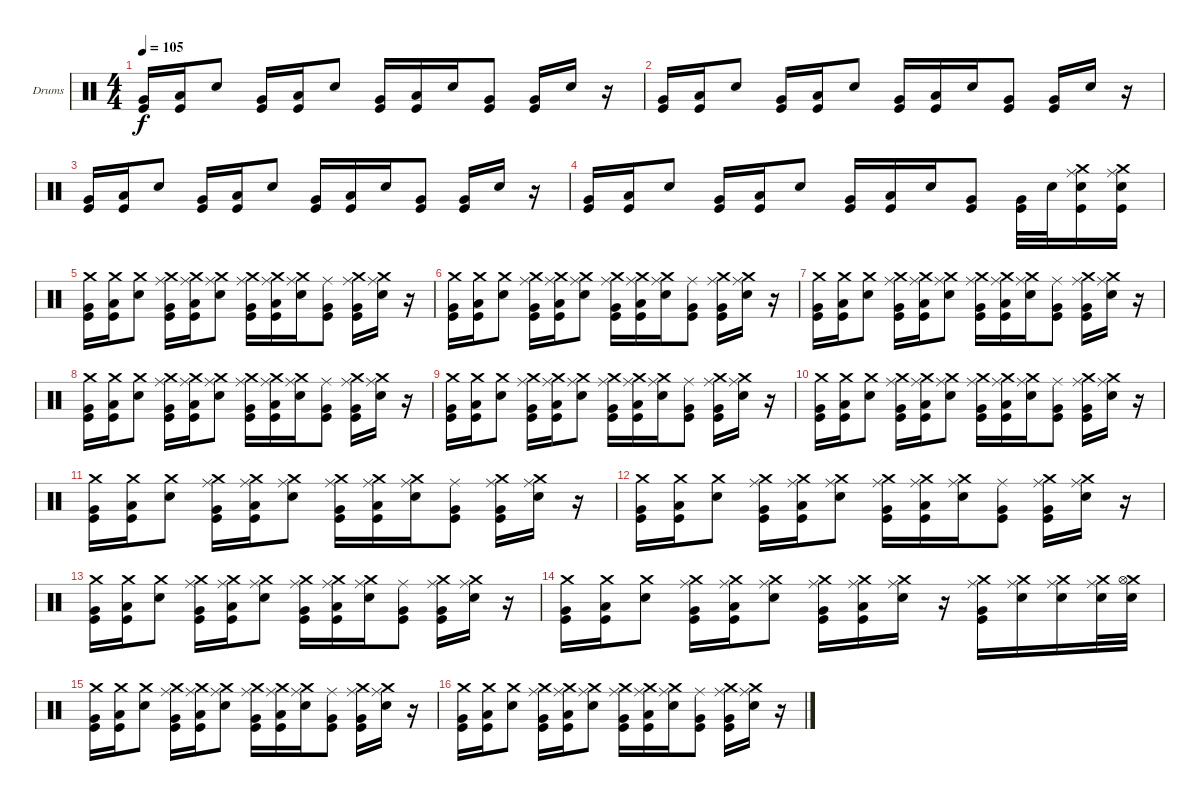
\defaultSystemsLayout 4
\bracketExtendMode groupsimilarinstruments
\firstSystemTrackNameOrientation horizontal
\otherSystemsTrackNameOrientation horizontal
\track ("Steve" "Drums") {instrument percussion}
\staff {score}
\articulation defaults
\ts (4 4)
\tempo 105
\clef neutral
\ks c
("Very Low Tom (hit)" "Kick (hit)").16{dy f} ("Low Tom (hit)" "Kick (hit)").16 "Snare (hit) 2".8 ("Very Low Tom (hit)" "Kick (hit)").16 ("Low Tom (hit)" "Kick (hit)").16 "Snare (hit) 2".8 ("Very Low Tom (hit)" "Kick (hit)").16 ("Low Tom (hit)" "Kick (hit)").16 "Snare (hit) 2".16 ("Very Low Tom (hit)" "Kick (hit)").8 ("Very Low Tom (hit)" "Kick (hit)").16 "Snare (hit) 2".16 r.16 |
("Very Low Tom (hit)" "Kick (hit)").16 ("Low Tom (hit)" "Kick (hit)").16 "Snare (hit) 2".8 ("Very Low Tom (hit)" "Kick (hit)").16 ("Low Tom (hit)" "Kick (hit)").16 "Snare (hit) 2".8 ("Very Low Tom (hit)" "Kick (hit)").16 ("Low Tom (hit)" "Kick (hit)").16 "Snare (hit) 2".16 ("Very Low Tom (hit)" "Kick (hit)").8 ("Very Low Tom (hit)" "Kick (hit)").16 "Snare (hit) 2".16 r.16 |
("Very Low Tom (hit)" "Kick (hit)").16 ("Low Tom (hit)" "Kick (hit)").16 "Snare (hit) 2".8 ("Very Low Tom (hit)" "Kick (hit)").16 ("Low Tom (hit)" "Kick (hit)").16 "Snare (hit) 2".8 ("Very Low Tom (hit)" "Kick (hit)").16 ("Low Tom (hit)" "Kick (hit)").16 "Snare (hit) 2".16 ("Very Low Tom (hit)" "Kick (hit)").8 ("Very Low Tom (hit)" "Kick (hit)").16 "Snare (hit) 2".16 r.16 |
("Very Low Tom (hit)" "Kick (hit)").16 ("Low Tom (hit)" "Kick (hit)").16 "Snare (hit) 2".8 ("Very Low Tom (hit)" "Kick (hit)").16 ("Low Tom (hit)" "Kick (hit)").16 "Snare (hit) 2".8 ("Very Low Tom (hit)" "Kick (hit)").16 ("Low Tom (hit)" "Kick (hit)").16 "Snare (hit) 2".16 ("Very Low Tom (hit)" "Kick (hit)").8 ("Very Low Tom (hit)" "Kick (hit)").32 "Snare (hit) 2".32 ("Snare (hit) 2" "Kick (hit)" "Crash medium (hit)" "Ride (middle)").16 ("Snare (hit) 2" "Kick (hit)" "Crash medium (hit)" "Ride (middle)").16 |
("Very Low Tom (hit)" "Crash medium (hit)" "Kick (hit)").16 ("Low Tom (hit)" "Crash medium (hit)" "Kick (hit)").16 ("Snare (hit) 2" "Crash medium (hit)").8 ("Very Low Tom (hit)" "Ride (middle)" "Kick (hit)" "Crash medium (hit)").16 ("Low Tom (hit)" "Ride (middle)" "Kick (hit)" "Crash medium (hit)").16 ("Snare (hit) 2" "Ride (middle)" "Crash medium (hit)").8 ("Very Low Tom (hit)" "Ride (middle)" "Kick (hit)" "Crash medium (hit)").16 ("Low Tom (hit)" "Ride (middle)" "Kick (hit)" "Crash medium (hit)").16 ("Snare (hit) 2" "Ride (middle)" "Crash medium (hit)").16 ("Very Low Tom (hit)" "Ride (middle)" "Kick (hit)").8 ("Very Low Tom (hit)" "Ride (middle)" "Kick (hit)" "Crash medium (hit)").16 ("Snare (hit) 2" "Ride (middle)" "Crash medium (hit)").16 r.16 |
("Very Low Tom (hit)" "Crash medium (hit)" "Kick (hit)").16 ("Low Tom (hit)" "Crash medium (hit)" "Kick (hit)").16 ("Snare (hit) 2" "Crash medium (hit)").8 ("Very Low Tom (hit)" "Ride (middle)" "Kick (hit)" "Crash medium (hit)").16 ("Low Tom (hit)" "Ride (middle)" "Kick (hit)" "Crash medium (hit)").16 ("Snare (hit) 2" "Ride (middle)" "Crash medium (hit)").8 ("Very Low Tom (hit)" "Ride (middle)" "Kick (hit)" "Crash medium (hit)").16 ("Low Tom (hit)" "Ride (middle)" "Kick (hit)" "Crash medium (hit)").16 ("Snare (hit) 2" "Ride (middle)" "Crash medium (hit)").16 ("Very Low Tom (hit)" "Ride (middle)" "Kick (hit)").8 ("Very Low Tom (hit)" "Ride (middle)" "Kick (hit)" "Crash medium (hit)").16 ("Snare (hit) 2" "Ride (middle)" "Crash medium (hit)").16 r.16 |
("Very Low Tom (hit)" "Crash medium (hit)" "Kick (hit)").16 ("Low Tom (hit)" "Crash medium (hit)" "Kick (hit)").16 ("Snare (hit) 2" "Crash medium (hit)").8 ("Very Low Tom (hit)" "Ride (middle)" "Kick (hit)" "Crash medium (hit)").16 ("Low Tom (hit)" "Ride (middle)" "Kick (hit)" "Crash medium (hit)").16 ("Snare (hit) 2" "Ride (middle)" "Crash medium (hit)").8 ("Very Low Tom (hit)" "Ride (middle)" "Kick (hit)" "Crash medium (hit)").16 ("Low Tom (hit)" "Ride (middle)" "Kick (hit)" "Crash medium (hit)").16 ("Snare (hit) 2" "Ride (middle)" "Crash medium (hit)").16 ("Very Low Tom (hit)" "Ride (middle)" "Kick (hit)").8 ("Very Low Tom (hit)" "Ride (middle)" "Kick (hit)" "Crash medium (hit)").16 ("Snare (hit) 2" "Ride (middle)" "Crash medium (hit)").16 r.16 |
("Very Low Tom (hit)" "Crash medium (hit)" "Kick (hit)").16 ("Low Tom (hit)" "Crash medium (hit)" "Kick (hit)").16 ("Snare (hit) 2" "Crash medium (hit)").8 ("Very Low Tom (hit)" "Ride (middle)" "Kick (hit)" "Crash medium (hit)").16 ("Low Tom (hit)" "Ride (middle)" "Kick (hit)" "Crash medium (hit)").16 ("Snare (hit) 2" "Ride (middle)" "Crash medium (hit)").8 ("Very Low Tom (hit)" "Ride (middle)" "Kick (hit)" "Crash medium (hit)").16 ("Low Tom (hit)" "Ride (middle)" "Kick (hit)" "Crash medium (hit)").16 ("Snare (hit) 2" "Ride (middle)" "Crash medium (hit)").16 ("Very Low Tom (hit)" "Ride (middle)" "Kick (hit)").8 ("Very Low Tom (hit)" "Ride (middle)" "Kick (hit)" "Crash medium (hit)").16 ("Snare (hit) 2" "Ride (middle)" "Crash medium (hit)").16 r.16 |
("Very Low Tom (hit)" "Crash medium (hit)" "Kick (hit)").16 ("Low Tom (hit)" "Crash medium (hit)" "Kick (hit)").16 ("Snare (hit) 2" "Crash medium (hit)").8 ("Very Low Tom (hit)" "Ride (middle)" "Kick (hit)" "Crash medium (hit)").16 ("Low Tom (hit)" "Ride (middle)" "Kick (hit)" "Crash medium (hit)").16 ("Snare (hit) 2" "Ride (middle)" "Crash medium (hit)").8 ("Very Low Tom (hit)" "Ride (middle)" "Kick (hit)" "Crash medium (hit)").16 ("Low Tom (hit)" "Ride (middle)" "Kick (hit)" "Crash medium (hit)").16 ("Snare (hit) 2" "Ride (middle)" "Crash medium (hit)").16 ("Very Low Tom (hit)" "Ride (middle)" "Kick (hit)").8 ("Very Low Tom (hit)" "Ride (middle)" "Kick (hit)" "Crash medium (hit)").16 ("Snare (hit) 2" "Ride (middle)" "Crash medium (hit)").16 r.16 |
("Very Low Tom (hit)" "Crash medium (hit)" "Kick (hit)").16 ("Low Tom (hit)" "Crash medium (hit)" "Kick (hit)").16 ("Snare (hit) 2" "Crash medium (hit)").8 ("Very Low Tom (hit)" "Ride (middle)" "Kick (hit)" "Crash medium (hit)").16 ("Low Tom (hit)" "Ride (middle)" "Kick (hit)" "Crash medium (hit)").16 ("Snare (hit) 2" "Ride (middle)" "Crash medium (hit)").8 ("Very Low Tom (hit)" "Ride (middle)" "Kick (hit)" "Crash medium (hit)").16 ("Low Tom (hit)" "Ride (middle)" "Kick (hit)" "Crash medium (hit)").16 ("Snare (hit) 2" "Ride (middle)" "Crash medium (hit)").16 ("Very Low Tom (hit)" "Ride (middle)" "Kick (hit)").8 ("Very Low Tom (hit)" "Ride (middle)" "Kick (hit)" "Crash medium (hit)").16 ("Snare (hit) 2" "Ride (middle)" "Crash medium (hit)").16 r.16 |
("Very Low Tom (hit)" "Crash medium (hit)" "Kick (hit)").16 ("Low Tom (hit)" "Crash medium (hit)" "Kick (hit)").16 ("Snare (hit) 2" "Crash medium (hit)").8 ("Very Low Tom (hit)" "Ride (middle)" "Kick (hit)" "Crash medium (hit)").16 ("Low Tom (hit)" "Ride (middle)" "Kick (hit)" "Crash medium (hit)").16 ("Snare (hit) 2" "Ride (middle)" "Crash medium (hit)").8 ("Very Low Tom (hit)" "Ride (middle)" "Kick (hit)" "Crash medium (hit)").16 ("Low Tom (hit)" "Ride (middle)" "Kick (hit)" "Crash medium (hit)").16 ("Snare (hit) 2" "Ride (middle)" "Crash medium (hit)").16 ("Very Low Tom (hit)" "Ride (middle)" "Kick (hit)").8 ("Very Low Tom (hit)" "Ride (middle)" "Kick (hit)" "Crash medium (hit)").16 ("Snare (hit) 2" "Ride (middle)" "Crash medium (hit)").16 r.16 |
("Very Low Tom (hit)" "Crash medium (hit)" "Kick (hit)").16 ("Low Tom (hit)" "Crash medium (hit)" "Kick (hit)").16 ("Snare (hit) 2" "Crash medium (hit)").8 ("Very Low Tom (hit)" "Ride (middle)" "Kick (hit)" "Crash medium (hit)").16 ("Low Tom (hit)" "Ride (middle)" "Kick (hit)" "Crash medium (hit)").16 ("Snare (hit) 2" "Ride (middle)" "Crash medium (hit)").8 ("Very Low Tom (hit)" "Ride (middle)" "Kick (hit)" "Crash medium (hit)").16 ("Low Tom (hit)" "Ride (middle)" "Kick (hit)" "Crash medium (hit)").16 ("Snare (hit) 2" "Ride (middle)" "Crash medium (hit)").16 ("Very Low Tom (hit)" "Ride (middle)" "Kick (hit)").8 ("Very Low Tom (hit)" "Ride (middle)" "Kick (hit)" "Crash medium (hit)").16 ("Snare (hit) 2" "Ride (middle)" "Crash medium (hit)").16 r.16 |
("Very Low Tom (hit)" "Crash medium (hit)" "Kick (hit)").16 ("Low Tom (hit)" "Crash medium (hit)" "Kick (hit)").16 ("Snare (hit) 2" "Crash medium (hit)").8 ("Very Low Tom (hit)" "Ride (middle)" "Kick (hit)" "Crash medium (hit)").16 ("Low Tom (hit)" "Ride (middle)" "Kick (hit)" "Crash medium (hit)").16 ("Snare (hit) 2" "Ride (middle)" "Crash medium (hit)").8 ("Very Low Tom (hit)" "Ride (middle)" "Kick (hit)" "Crash medium (hit)").16 ("Low Tom (hit)" "Ride (middle)" "Kick (hit)" "Crash medium (hit)").16 ("Snare (hit) 2" "Ride (middle)" "Crash medium (hit)").16 ("Very Low Tom (hit)" "Ride (middle)" "Kick (hit)").8 ("Very Low Tom (hit)" "Ride (middle)" "Kick (hit)" "Crash medium (hit)").16 ("Snare (hit) 2" "Ride (middle)" "Crash medium (hit)").16 r.16 |
("Very Low Tom (hit)" "Crash medium (hit)" "Kick (hit)").16 ("Low Tom (hit)" "Crash medium (hit)" "Kick (hit)").16 ("Snare (hit) 2" "Crash medium (hit)").8 ("Very Low Tom (hit)" "Ride (middle)" "Kick (hit)" "Crash medium (hit)").16 ("Low Tom (hit)" "Ride (middle)" "Kick (hit)" "Crash medium (hit)").16 ("Snare (hit) 2" "Ride (middle)" "Crash medium (hit)").8 ("Very Low Tom (hit)" "Ride (middle)" "Kick (hit)" "Crash medium (hit)").16 ("Low Tom (hit)" "Ride (middle)" "Kick (hit)" "Crash medium (hit)").16 ("Snare (hit) 2" "Ride (middle)" "Crash medium (hit)").16 r.16 ("Very Low Tom (hit)" "Ride (middle)" "Kick (hit)" "Crash medium (hit)").16 ("Snare (hit) 2" "Ride (middle)" "Crash medium (hit)").16 ("Snare (hit) 2" "Ride (middle)" "Crash medium (hit)").16 ("Snare (hit) 2" "Ride (middle)" "Crash medium (hit)").32 ("Snare (hit) 2" "Crash medium (hit)" "Hi-Hat (open)").32 |
("Very Low Tom (hit)" "Crash medium (hit)" "Kick (hit)").16 ("Low Tom (hit)" "Crash medium (hit)" "Kick (hit)").16 ("Snare (hit) 2" "Crash medium (hit)").8 ("Very Low Tom (hit)" "Ride (middle)" "Kick (hit)" "Crash medium (hit)").16 ("Low Tom (hit)" "Ride (middle)" "Kick (hit)" "Crash medium (hit)").16 ("Snare (hit) 2" "Ride (middle)" "Crash medium (hit)").8 ("Very Low Tom (hit)" "Ride (middle)" "Kick (hit)" "Crash medium (hit)").16 ("Low Tom (hit)" "Ride (middle)" "Kick (hit)" "Crash medium (hit)").16 ("Snare (hit) 2" "Ride (middle)" "Crash medium (hit)").16 ("Very Low Tom (hit)" "Ride (middle)" "Kick (hit)").8 ("Very Low Tom (hit)" "Ride (middle)" "Kick (hit)" "Crash medium (hit)").16 ("Snare (hit) 2" "Ride (middle)" "Crash medium (hit)").16 r.16 |
("Very Low Tom (hit)" "Crash medium (hit)" "Kick (hit)").16 ("Low Tom (hit)" "Crash medium (hit)" "Kick (hit)").16 ("Snare (hit) 2" "Crash medium (hit)").8 ("Very Low Tom (hit)" "Ride (middle)" "Kick (hit)" "Crash medium (hit)").16 ("Low Tom (hit)" "Ride (middle)" "Kick (hit)" "Crash medium (hit)").16 ("Snare (hit) 2" "Ride (middle)" "Crash medium (hit)").8 ("Very Low Tom (hit)" "Ride (middle)" "Kick (hit)" "Crash medium (hit)").16 ("Low Tom (hit)" "Ride (middle)" "Kick (hit)" "Crash medium (hit)").16 ("Snare (hit) 2" "Ride (middle)" "Crash medium (hit)").16 ("Very Low Tom (hit)" "Ride (middle)" "Kick (hit)").8 ("Very Low Tom (hit)" "Ride (middle)" "Kick (hit)" "Crash medium (hit)").16 ("Snare (hit) 2" "Ride (middle)" "Crash medium (hit)").16 r.16
